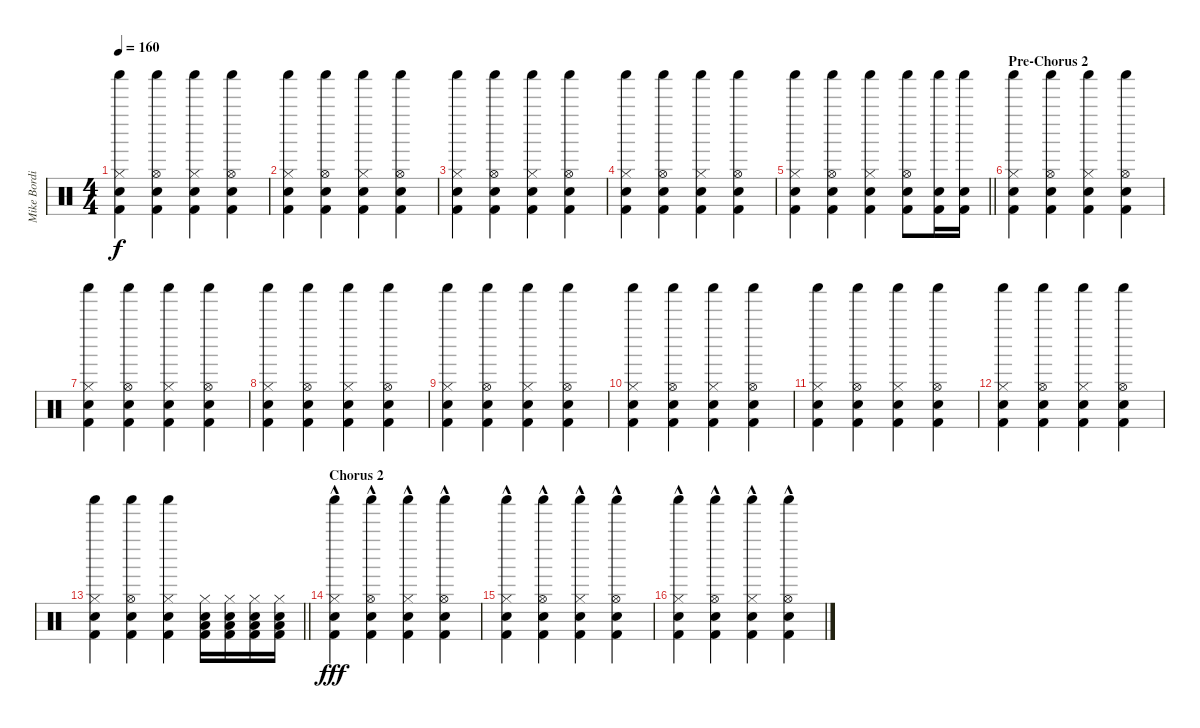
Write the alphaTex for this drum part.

\track ("Mike Bordin - Percussion" "Mike Bordi") {instrument percussion}
\staff {score}
\articulation defaults
\ts (4 4)
\tempo 160
\clef neutral
\ks c
("Shaker (hit)" "Snare (hit) 2" "Hi-Hat (closed)" "Kick (hit) 2").4{dy f} ("Shaker (hit)" "Snare (hit) 2" "Hi-Hat (open)" "Kick (hit) 2").4 ("Shaker (hit)" "Snare (hit) 2" "Hi-Hat (closed)" "Kick (hit) 2").4 ("Shaker (hit)" "Snare (hit) 2" "Hi-Hat (open)" "Kick (hit) 2").4 |
("Shaker (hit)" "Snare (hit) 2" "Hi-Hat (closed)" "Kick (hit) 2").4 ("Shaker (hit)" "Snare (hit) 2" "Hi-Hat (open)" "Kick (hit) 2").4 ("Shaker (hit)" "Snare (hit) 2" "Hi-Hat (closed)" "Kick (hit) 2").4 ("Shaker (hit)" "Snare (hit) 2" "Hi-Hat (open)" "Kick (hit) 2").4 |
("Shaker (hit)" "Snare (hit) 2" "Hi-Hat (closed)" "Kick (hit) 2").4 ("Shaker (hit)" "Snare (hit) 2" "Hi-Hat (open)" "Kick (hit) 2").4 ("Shaker (hit)" "Snare (hit) 2" "Hi-Hat (closed)" "Kick (hit) 2").4 ("Shaker (hit)" "Snare (hit) 2" "Hi-Hat (open)" "Kick (hit) 2").4 |
("Shaker (hit)" "Snare (hit) 2" "Hi-Hat (closed)" "Kick (hit) 2").4 ("Shaker (hit)" "Snare (hit) 2" "Hi-Hat (open)" "Kick (hit) 2").4 ("Shaker (hit)" "Snare (hit) 2" "Hi-Hat (closed)" "Kick (hit) 2").4 ("Shaker (hit)" "Snare (hit) 2" "Hi-Hat (open)" "Kick (hit) 2").4 |
\barLineRight lightlight
("Shaker (hit)" "Snare (hit) 2" "Hi-Hat (closed)" "Kick (hit) 2").4{volume 16} ("Shaker (hit)" "Snare (hit) 2" "Hi-Hat (open)" "Kick (hit) 2").4 ("Shaker (hit)" "Snare (hit) 2" "Hi-Hat (closed)" "Kick (hit) 2").4 ("Shaker (hit)" "Snare (hit) 2" "Hi-Hat (open)" "Kick (hit) 2").8 ("Shaker (hit)" "Snare (hit) 2" "Kick (hit) 2").16 ("Shaker (hit)" "Snare (hit) 2" "Kick (hit) 2").16 |
\section ("" "Pre-Chorus 2 ")
("Shaker (hit)" "Snare (hit) 2" "Hi-Hat (closed)" "Kick (hit) 2").4 ("Shaker (hit)" "Snare (hit) 2" "Hi-Hat (open)" "Kick (hit) 2").4 ("Shaker (hit)" "Snare (hit) 2" "Hi-Hat (closed)" "Kick (hit) 2").4 ("Shaker (hit)" "Snare (hit) 2" "Hi-Hat (open)" "Kick (hit) 2").4 |
("Shaker (hit)" "Snare (hit) 2" "Hi-Hat (closed)" "Kick (hit) 2").4 ("Shaker (hit)" "Snare (hit) 2" "Hi-Hat (open)" "Kick (hit) 2").4 ("Shaker (hit)" "Snare (hit) 2" "Hi-Hat (closed)" "Kick (hit) 2").4 ("Shaker (hit)" "Snare (hit) 2" "Hi-Hat (open)" "Kick (hit) 2").4 |
("Shaker (hit)" "Snare (hit) 2" "Hi-Hat (closed)" "Kick (hit) 2").4 ("Shaker (hit)" "Snare (hit) 2" "Hi-Hat (open)" "Kick (hit) 2").4 ("Shaker (hit)" "Snare (hit) 2" "Hi-Hat (closed)" "Kick (hit) 2").4 ("Shaker (hit)" "Snare (hit) 2" "Hi-Hat (open)" "Kick (hit) 2").4 |
("Shaker (hit)" "Snare (hit) 2" "Hi-Hat (closed)" "Kick (hit) 2").4 ("Shaker (hit)" "Snare (hit) 2" "Hi-Hat (open)" "Kick (hit) 2").4 ("Shaker (hit)" "Snare (hit) 2" "Hi-Hat (closed)" "Kick (hit) 2").4 ("Shaker (hit)" "Snare (hit) 2" "Hi-Hat (open)" "Kick (hit) 2").4 |
("Shaker (hit)" "Snare (hit) 2" "Hi-Hat (closed)" "Kick (hit) 2").4 ("Shaker (hit)" "Snare (hit) 2" "Hi-Hat (open)" "Kick (hit) 2").4 ("Shaker (hit)" "Snare (hit) 2" "Hi-Hat (closed)" "Kick (hit) 2").4 ("Shaker (hit)" "Snare (hit) 2" "Hi-Hat (open)" "Kick (hit) 2").4 |
("Shaker (hit)" "Snare (hit) 2" "Hi-Hat (closed)" "Kick (hit) 2").4 ("Shaker (hit)" "Snare (hit) 2" "Hi-Hat (open)" "Kick (hit) 2").4 ("Shaker (hit)" "Snare (hit) 2" "Hi-Hat (closed)" "Kick (hit) 2").4 ("Shaker (hit)" "Snare (hit) 2" "Hi-Hat (open)" "Kick (hit) 2").4 |
("Shaker (hit)" "Snare (hit) 2" "Hi-Hat (closed)" "Kick (hit) 2").4 ("Shaker (hit)" "Snare (hit) 2" "Hi-Hat (open)" "Kick (hit) 2").4 ("Shaker (hit)" "Snare (hit) 2" "Hi-Hat (closed)" "Kick (hit) 2").4 ("Shaker (hit)" "Snare (hit) 2" "Hi-Hat (open)" "Kick (hit) 2").4 |
\barLineRight lightlight
("Shaker (hit)" "Snare (hit) 2" "Hi-Hat (closed)" "Kick (hit) 2").4{volume 16} ("Shaker (hit)" "Snare (hit) 2" "Hi-Hat (open)" "Kick (hit) 2").4 ("Shaker (hit)" "Snare (hit) 2" "Hi-Hat (closed)" "Kick (hit) 2").4 ("Low Floor Tom (hit)" "Snare (hit) 2" "Hi-Hat (closed)" "Kick (hit) 2").16 ("Low Floor Tom (hit)" "Snare (hit) 2" "Hi-Hat (closed)" "Kick (hit) 2").16 ("Low Floor Tom (hit)" "Snare (hit) 2" "Hi-Hat (closed)" "Kick (hit) 2").16 ("Low Floor Tom (hit)" "Snare (hit) 2" "Hi-Hat (closed)" "Kick (hit) 2").16 |
\section ("" "Chorus 2")
("Shaker (hit)" "Snare (hit) 2" "Hi-Hat (closed)"{hac} "Kick (hit) 2").4{dy fff} ("Shaker (hit)" "Snare (hit) 2" "Hi-Hat (open)"{hac} "Kick (hit) 2").4 ("Shaker (hit)" "Snare (hit) 2" "Hi-Hat (closed)"{hac} "Kick (hit) 2").4 ("Shaker (hit)" "Snare (hit) 2" "Hi-Hat (open)"{hac} "Kick (hit) 2").4 |
("Shaker (hit)" "Snare (hit) 2" "Hi-Hat (closed)"{hac} "Kick (hit) 2").4 ("Shaker (hit)" "Snare (hit) 2" "Hi-Hat (open)"{hac} "Kick (hit) 2").4 ("Shaker (hit)" "Snare (hit) 2" "Hi-Hat (closed)"{hac} "Kick (hit) 2").4 ("Shaker (hit)" "Snare (hit) 2" "Hi-Hat (open)"{hac} "Kick (hit) 2").4 |
("Shaker (hit)" "Snare (hit) 2" "Hi-Hat (closed)"{hac} "Kick (hit) 2").4 ("Shaker (hit)" "Snare (hit) 2" "Hi-Hat (open)"{hac} "Kick (hit) 2").4 ("Shaker (hit)" "Snare (hit) 2" "Hi-Hat (closed)"{hac} "Kick (hit) 2").4 ("Shaker (hit)" "Snare (hit) 2" "Hi-Hat (open)"{hac} "Kick (hit) 2").4
